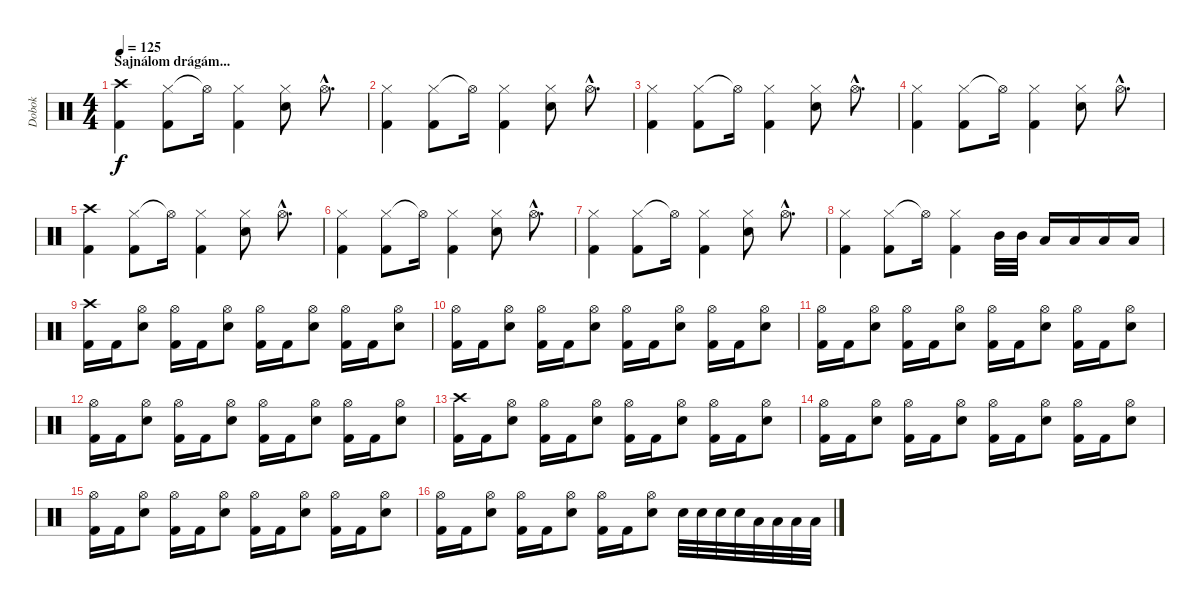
\track ("Dobok" "Dobok") {instrument percussion}
\staff {score}
\articulation defaults
\ts (4 4)
\section ("" "Sajnálom drágám...")
\tempo 125
\clef neutral
\ks c
("Crash high (hit)" "Kick (hit) 2").4{dy f} ("Hi-Hat (closed)" "Kick (hit) 2").8 "Hi-Hat (open)"{t}.16 ("Hi-Hat (closed)" "Kick (hit) 2").4 ("Hi-Hat (closed)" "Snare (hit) 2").8 "Hi-Hat (open)"{hac}.8{d} |
("Hi-Hat (closed)" "Kick (hit) 2").4 ("Hi-Hat (closed)" "Kick (hit) 2").8 "Hi-Hat (open)"{t}.16 ("Hi-Hat (closed)" "Kick (hit) 2").4 ("Hi-Hat (closed)" "Snare (hit) 2").8 "Hi-Hat (open)"{hac}.8{d} |
("Hi-Hat (closed)" "Kick (hit) 2").4 ("Hi-Hat (closed)" "Kick (hit) 2").8 "Hi-Hat (open)"{t}.16 ("Hi-Hat (closed)" "Kick (hit) 2").4 ("Hi-Hat (closed)" "Snare (hit) 2").8 "Hi-Hat (open)"{hac}.8{d} |
("Hi-Hat (closed)" "Kick (hit) 2").4 ("Hi-Hat (closed)" "Kick (hit) 2").8 "Hi-Hat (open)"{t}.16 ("Hi-Hat (closed)" "Kick (hit) 2").4 ("Hi-Hat (closed)" "Snare (hit) 2").8 "Hi-Hat (open)"{hac}.8{d} |
("Crash high (hit)" "Kick (hit) 2").4 ("Hi-Hat (closed)" "Kick (hit) 2").8 "Hi-Hat (open)"{t}.16 ("Hi-Hat (closed)" "Kick (hit) 2").4 ("Hi-Hat (closed)" "Snare (hit) 2").8 "Hi-Hat (open)"{hac}.8{d} |
("Hi-Hat (closed)" "Kick (hit) 2").4 ("Hi-Hat (closed)" "Kick (hit) 2").8 "Hi-Hat (open)"{t}.16 ("Hi-Hat (closed)" "Kick (hit) 2").4 ("Hi-Hat (closed)" "Snare (hit) 2").8 "Hi-Hat (open)"{hac}.8{d} |
("Hi-Hat (closed)" "Kick (hit) 2").4 ("Hi-Hat (closed)" "Kick (hit) 2").8 "Hi-Hat (open)"{t}.16 ("Hi-Hat (closed)" "Kick (hit) 2").4 ("Hi-Hat (closed)" "Snare (hit) 2").8 "Hi-Hat (open)"{hac}.8{d} |
("Hi-Hat (closed)" "Kick (hit) 2").4 ("Hi-Hat (closed)" "Kick (hit) 2").8 "Hi-Hat (open)"{t}.16 ("Hi-Hat (closed)" "Kick (hit) 2").4 "Mid Tom (hit)".32 "Mid Tom (hit)".32 "Low Tom (hit)".16 "Low Tom (hit)".16 "Low Tom (hit)".16 "Low Tom (hit)".16 |
("Crash high (hit)" "Kick (hit) 2").16 "Kick (hit) 2".16 ("Hi-Hat (open)" "Snare (hit) 2").8 ("Hi-Hat (open)" "Kick (hit) 2").16 "Kick (hit) 2".16 ("Hi-Hat (open)" "Snare (hit) 2").8 ("Hi-Hat (open)" "Kick (hit) 2").16 "Kick (hit) 2".16 ("Hi-Hat (open)" "Snare (hit) 2").8 ("Hi-Hat (open)" "Kick (hit) 2").16 "Kick (hit) 2".16 ("Hi-Hat (open)" "Snare (hit) 2").8 |
("Hi-Hat (open)" "Kick (hit) 2").16 "Kick (hit) 2".16 ("Hi-Hat (open)" "Snare (hit) 2").8 ("Hi-Hat (open)" "Kick (hit) 2").16 "Kick (hit) 2".16 ("Hi-Hat (open)" "Snare (hit) 2").8 ("Hi-Hat (open)" "Kick (hit) 2").16 "Kick (hit) 2".16 ("Hi-Hat (open)" "Snare (hit) 2").8 ("Hi-Hat (open)" "Kick (hit) 2").16 "Kick (hit) 2".16 ("Hi-Hat (open)" "Snare (hit) 2").8 |
("Hi-Hat (open)" "Kick (hit) 2").16 "Kick (hit) 2".16 ("Hi-Hat (open)" "Snare (hit) 2").8 ("Hi-Hat (open)" "Kick (hit) 2").16 "Kick (hit) 2".16 ("Hi-Hat (open)" "Snare (hit) 2").8 ("Hi-Hat (open)" "Kick (hit) 2").16 "Kick (hit) 2".16 ("Hi-Hat (open)" "Snare (hit) 2").8 ("Hi-Hat (open)" "Kick (hit) 2").16 "Kick (hit) 2".16 ("Hi-Hat (open)" "Snare (hit) 2").8 |
("Hi-Hat (open)" "Kick (hit) 2").16 "Kick (hit) 2".16 ("Hi-Hat (open)" "Snare (hit) 2").8 ("Hi-Hat (open)" "Kick (hit) 2").16 "Kick (hit) 2".16 ("Hi-Hat (open)" "Snare (hit) 2").8 ("Hi-Hat (open)" "Kick (hit) 2").16 "Kick (hit) 2".16 ("Hi-Hat (open)" "Snare (hit) 2").8 ("Hi-Hat (open)" "Kick (hit) 2").16 "Kick (hit) 2".16 ("Hi-Hat (open)" "Snare (hit) 2").8 |
("Crash high (hit)" "Kick (hit) 2").16 "Kick (hit) 2".16 ("Hi-Hat (open)" "Snare (hit) 2").8 ("Hi-Hat (open)" "Kick (hit) 2").16 "Kick (hit) 2".16 ("Hi-Hat (open)" "Snare (hit) 2").8 ("Hi-Hat (open)" "Kick (hit) 2").16 "Kick (hit) 2".16 ("Hi-Hat (open)" "Snare (hit) 2").8 ("Hi-Hat (open)" "Kick (hit) 2").16 "Kick (hit) 2".16 ("Hi-Hat (open)" "Snare (hit) 2").8 |
("Hi-Hat (open)" "Kick (hit) 2").16 "Kick (hit) 2".16 ("Hi-Hat (open)" "Snare (hit) 2").8 ("Hi-Hat (open)" "Kick (hit) 2").16 "Kick (hit) 2".16 ("Hi-Hat (open)" "Snare (hit) 2").8 ("Hi-Hat (open)" "Kick (hit) 2").16 "Kick (hit) 2".16 ("Hi-Hat (open)" "Snare (hit) 2").8 ("Hi-Hat (open)" "Kick (hit) 2").16 "Kick (hit) 2".16 ("Hi-Hat (open)" "Snare (hit) 2").8 |
("Hi-Hat (open)" "Kick (hit) 2").16 "Kick (hit) 2".16 ("Hi-Hat (open)" "Snare (hit) 2").8 ("Hi-Hat (open)" "Kick (hit) 2").16 "Kick (hit) 2".16 ("Hi-Hat (open)" "Snare (hit) 2").8 ("Hi-Hat (open)" "Kick (hit) 2").16 "Kick (hit) 2".16 ("Hi-Hat (open)" "Snare (hit) 2").8 ("Hi-Hat (open)" "Kick (hit) 2").16 "Kick (hit) 2".16 ("Hi-Hat (open)" "Snare (hit) 2").8 |
("Hi-Hat (open)" "Kick (hit) 2").16 "Kick (hit) 2".16 ("Hi-Hat (open)" "Snare (hit) 2").8 ("Hi-Hat (open)" "Kick (hit) 2").16 "Kick (hit) 2".16 ("Hi-Hat (open)" "Snare (hit) 2").8 ("Hi-Hat (open)" "Kick (hit) 2").16 "Kick (hit) 2".16 ("Hi-Hat (open)" "Snare (hit) 2").8 "Snare (hit) 2".32 "Snare (hit) 2".32 "Snare (hit) 2".32 "Snare (hit) 2".32 "Low Tom (hit)".32 "Low Tom (hit)".32 "Low Tom (hit)".32 "Low Tom (hit)".32
